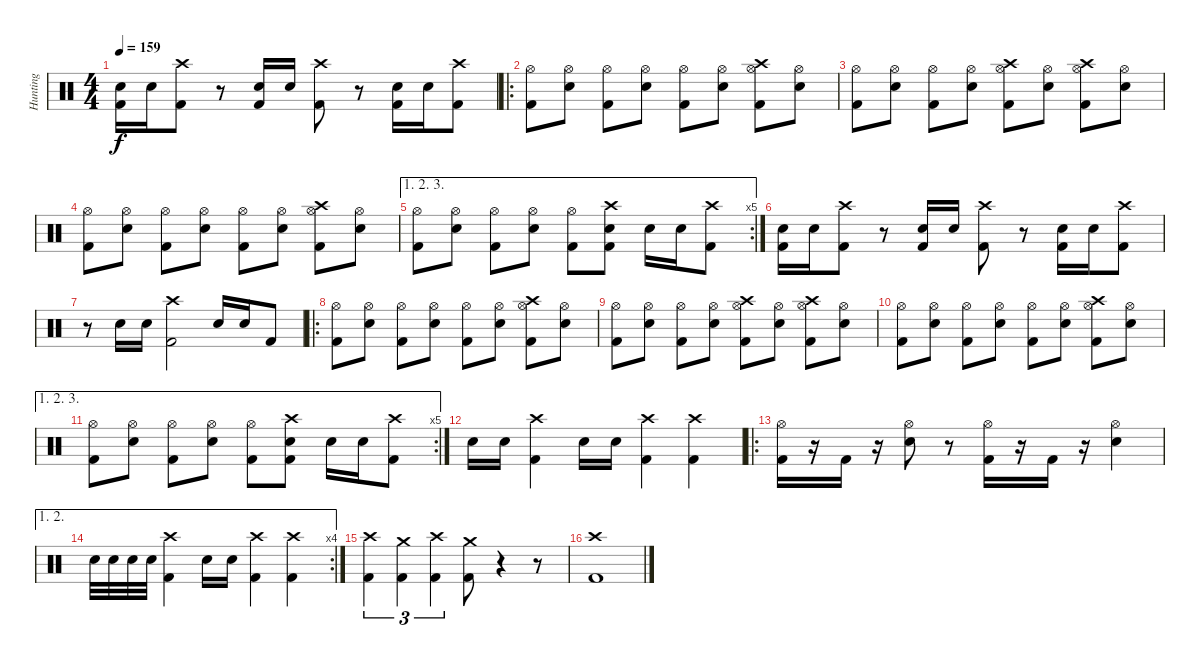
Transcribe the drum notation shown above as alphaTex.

\track ("Hunting" "Hunting") {instrument percussion}
\staff {score}
\articulation defaults
\ts (4 4)
\tempo 159
\clef neutral
\ks c
("Snare (hit) 2" "Kick (hit) 2").16{dy f} "Snare (hit) 2".16 ("Crash high (hit)" "Kick (hit) 2").8 r.8 ("Snare (hit) 2" "Kick (hit) 2").16 "Snare (hit) 2".16 ("Crash high (hit)" "Kick (hit) 2").8 r.8 ("Snare (hit) 2" "Kick (hit) 2").16 "Snare (hit) 2".16 ("Crash high (hit)" "Kick (hit) 2").8 |
\ro
("Hi-Hat (open)" "Kick (hit) 2").8 ("Hi-Hat (open)" "Snare (hit) 2").8 ("Hi-Hat (open)" "Kick (hit) 2").8 ("Hi-Hat (open)" "Snare (hit) 2").8 ("Hi-Hat (open)" "Kick (hit) 2").8 ("Hi-Hat (open)" "Snare (hit) 2").8 ("Crash high (hit)" "Hi-Hat (open)" "Kick (hit) 2").8 ("Hi-Hat (open)" "Snare (hit) 2").8 |
("Hi-Hat (open)" "Kick (hit) 2").8 ("Hi-Hat (open)" "Snare (hit) 2").8 ("Hi-Hat (open)" "Kick (hit) 2").8 ("Hi-Hat (open)" "Snare (hit) 2").8 ("Crash high (hit)" "Hi-Hat (open)" "Kick (hit) 2").8 ("Hi-Hat (open)" "Snare (hit) 2").8 ("Crash high (hit)" "Hi-Hat (open)" "Kick (hit) 2").8 ("Hi-Hat (open)" "Snare (hit) 2").8 |
("Hi-Hat (open)" "Kick (hit) 2").8 ("Hi-Hat (open)" "Snare (hit) 2").8 ("Hi-Hat (open)" "Kick (hit) 2").8 ("Hi-Hat (open)" "Snare (hit) 2").8 ("Hi-Hat (open)" "Kick (hit) 2").8 ("Hi-Hat (open)" "Snare (hit) 2").8 ("Crash high (hit)" "Hi-Hat (open)" "Kick (hit) 2").8 ("Hi-Hat (open)" "Snare (hit) 2").8 |
\ae (1 2 3)
\rc 5
("Hi-Hat (open)" "Kick (hit) 2").8 ("Hi-Hat (open)" "Snare (hit) 2").8 ("Hi-Hat (open)" "Kick (hit) 2").8 ("Hi-Hat (open)" "Snare (hit) 2").8 ("Hi-Hat (open)" "Kick (hit) 2").8 ("Crash high (hit)" "Snare (hit) 2" "Kick (hit) 2").8 "Snare (hit) 2".16 "Snare (hit) 2".16 ("Crash high (hit)" "Kick (hit) 2").8 |
("Snare (hit) 2" "Kick (hit) 2").16 "Snare (hit) 2".16 ("Crash high (hit)" "Kick (hit) 2").8 r.8 ("Snare (hit) 2" "Kick (hit) 2").16 "Snare (hit) 2".16 ("Crash high (hit)" "Kick (hit) 2").8 r.8 ("Snare (hit) 2" "Kick (hit) 2").16 "Snare (hit) 2".16 ("Crash high (hit)" "Kick (hit) 2").8 |
r.8 "Snare (hit) 2".16 "Snare (hit) 2".16 ("Crash high (hit)" "Kick (hit) 2").2 "Snare (hit) 2".16 "Snare (hit) 2".16 "Kick (hit) 2".8 |
\ro
("Hi-Hat (open)" "Kick (hit) 2").8 ("Hi-Hat (open)" "Snare (hit) 2").8 ("Hi-Hat (open)" "Kick (hit) 2").8 ("Hi-Hat (open)" "Snare (hit) 2").8 ("Hi-Hat (open)" "Kick (hit) 2").8 ("Hi-Hat (open)" "Snare (hit) 2").8 ("Crash high (hit)" "Hi-Hat (open)" "Kick (hit) 2").8 ("Hi-Hat (open)" "Snare (hit) 2").8 |
("Hi-Hat (open)" "Kick (hit) 2").8 ("Hi-Hat (open)" "Snare (hit) 2").8 ("Hi-Hat (open)" "Kick (hit) 2").8 ("Hi-Hat (open)" "Snare (hit) 2").8 ("Crash high (hit)" "Hi-Hat (open)" "Kick (hit) 2").8 ("Hi-Hat (open)" "Snare (hit) 2").8 ("Crash high (hit)" "Hi-Hat (open)" "Kick (hit) 2").8 ("Hi-Hat (open)" "Snare (hit) 2").8 |
("Hi-Hat (open)" "Kick (hit) 2").8 ("Hi-Hat (open)" "Snare (hit) 2").8 ("Hi-Hat (open)" "Kick (hit) 2").8 ("Hi-Hat (open)" "Snare (hit) 2").8 ("Hi-Hat (open)" "Kick (hit) 2").8 ("Hi-Hat (open)" "Snare (hit) 2").8 ("Crash high (hit)" "Hi-Hat (open)" "Kick (hit) 2").8 ("Hi-Hat (open)" "Snare (hit) 2").8 |
\ae (1 2 3)
\rc 5
("Hi-Hat (open)" "Kick (hit) 2").8 ("Hi-Hat (open)" "Snare (hit) 2").8 ("Hi-Hat (open)" "Kick (hit) 2").8 ("Hi-Hat (open)" "Snare (hit) 2").8 ("Hi-Hat (open)" "Kick (hit) 2").8 ("Crash high (hit)" "Snare (hit) 2" "Kick (hit) 2").8 "Snare (hit) 2".16 "Snare (hit) 2".16 ("Crash high (hit)" "Kick (hit) 2").8 |
"Snare (hit) 2".16 "Snare (hit) 2".16 ("Crash high (hit)" "Kick (hit) 2").4 "Snare (hit) 2".16 "Snare (hit) 2".16 ("Crash high (hit)" "Kick (hit) 2").4 ("Crash high (hit)" "Kick (hit) 2").4 |
\ro
("Hi-Hat (open)" "Kick (hit) 2").16 r.16 "Kick (hit) 2".16 r.16 ("Hi-Hat (open)" "Snare (hit) 2").8 r.8 ("Hi-Hat (open)" "Kick (hit) 2").16 r.16 "Kick (hit) 2".16 r.16 ("Hi-Hat (open)" "Snare (hit) 2").4 |
\ae (1 2)
\rc 4 "Snare (hit) 2".32 "Snare (hit) 2".32 "Snare (hit) 2".32 "Snare (hit) 2".32
("Crash high (hit)" "Kick (hit) 2").4 "Snare (hit) 2".16 "Snare (hit) 2".16 ("Crash high (hit)" "Kick (hit) 2").4 ("Crash high (hit)" "Kick (hit) 2").4 |
("Crash high (hit)" "Kick (hit) 2").4{tu (3 2)} ("Crash medium (hit)" "Kick (hit) 2").4{tu (3 2)} ("Crash high (hit)" "Kick (hit) 2").4{tu (3 2)} ("Crash medium (hit)" "Kick (hit) 2").8 r.4 r.8 |
("Crash high (hit)" "Kick (hit) 2").1
